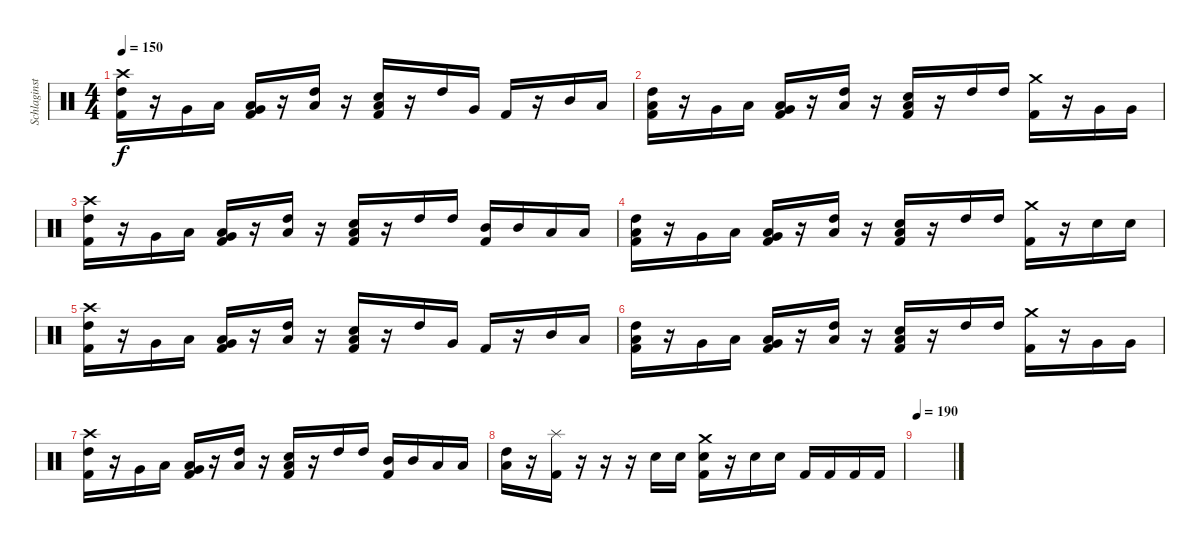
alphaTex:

\track ("Schlaginstrumente - Auswahl" "Schlaginst") {instrument percussion}
\staff {score}
\articulation defaults
\ts (4 4)
\tempo 150
\clef neutral
\ks c
("Crash high (hit)" "High Tom (hit)" "Kick (hit) 2").16{dy f} r.16 "Very Low Tom (hit)".16 "Low Tom (hit)".16 ("Low Tom (hit)" "Very Low Tom (hit)" "Kick (hit) 2").16 r.16 ("High Tom (hit)" "Low Floor Tom (hit)").16 r.16 ("Low Floor Tom (hit)" "Snare (hit) 2" "Kick (hit) 2").16 r.16 "High Tom (hit)".16 "Very Low Tom (hit)".16 "Kick (hit) 2".16 r.16 "Mid Tom (hit)".16 "Low Tom (hit)".16 |
("High Tom (hit)" "Low Tom (hit)" "Kick (hit) 2").16 r.16 "Very Low Tom (hit)".16 "Low Tom (hit)".16 ("Low Tom (hit)" "Very Low Tom (hit)" "Kick (hit) 2").16 r.16 ("High Tom (hit)" "Low Floor Tom (hit)").16 r.16 ("Low Floor Tom (hit)" "Snare (hit) 2" "Kick (hit) 2").16 r.16 "High Tom (hit)".16 "High Tom (hit)".16 ("Crash medium (hit)" "Kick (hit) 2").16 r.16 "Very Low Tom (hit)".16 "Very Low Tom (hit)".16 |
("Crash high (hit)" "High Tom (hit)" "Kick (hit) 2").16 r.16 "Very Low Tom (hit)".16 "Low Tom (hit)".16 ("Low Tom (hit)" "Very Low Tom (hit)" "Kick (hit) 2").16 r.16 ("High Tom (hit)" "Low Floor Tom (hit)").16 r.16 ("Low Floor Tom (hit)" "Snare (hit) 2" "Kick (hit) 2").16 r.16 "High Tom (hit)".16 "High Tom (hit)".16 ("Mid Tom (hit)" "Kick (hit) 2").16 "Mid Tom (hit)".16 "Low Tom (hit)".16 "Low Tom (hit)".16 |
("High Tom (hit)" "Low Tom (hit)" "Kick (hit) 2").16 r.16 "Very Low Tom (hit)".16 "Low Tom (hit)".16 ("Low Tom (hit)" "Very Low Tom (hit)" "Kick (hit) 2").16 r.16 ("High Tom (hit)" "Low Floor Tom (hit)").16 r.16 ("Low Floor Tom (hit)" "Snare (hit) 2" "Kick (hit) 2").16 r.16 "High Tom (hit)".16 "High Tom (hit)".16 ("Crash medium (hit)" "Kick (hit) 2").16 r.16 "Snare (hit) 2".16 "Snare (hit) 2".16 |
("Crash high (hit)" "High Tom (hit)" "Kick (hit) 2").16 r.16 "Very Low Tom (hit)".16 "Low Tom (hit)".16 ("Low Tom (hit)" "Very Low Tom (hit)" "Kick (hit) 2").16 r.16 ("High Tom (hit)" "Low Floor Tom (hit)").16 r.16 ("Low Floor Tom (hit)" "Snare (hit) 2" "Kick (hit) 2").16 r.16 "High Tom (hit)".16 "Very Low Tom (hit)".16 "Kick (hit) 2".16 r.16 "Mid Tom (hit)".16 "Low Tom (hit)".16 |
("High Tom (hit)" "Low Tom (hit)" "Kick (hit) 2").16 r.16 "Very Low Tom (hit)".16 "Low Tom (hit)".16 ("Low Tom (hit)" "Very Low Tom (hit)" "Kick (hit) 2").16 r.16 ("High Tom (hit)" "Low Floor Tom (hit)").16 r.16 ("Low Floor Tom (hit)" "Snare (hit) 2" "Kick (hit) 2").16 r.16 "High Tom (hit)".16 "High Tom (hit)".16 ("Crash medium (hit)" "Kick (hit) 2").16 r.16 "Very Low Tom (hit)".16 "Very Low Tom (hit)".16 |
("Crash high (hit)" "High Tom (hit)" "Kick (hit) 2").16 r.16 "Very Low Tom (hit)".16 "Low Tom (hit)".16 ("Low Tom (hit)" "Very Low Tom (hit)" "Kick (hit) 2").16 r.16 ("High Tom (hit)" "Low Floor Tom (hit)").16 r.16 ("Low Floor Tom (hit)" "Snare (hit) 2" "Kick (hit) 2").16 r.16 "High Tom (hit)".16 "High Tom (hit)".16 ("Mid Tom (hit)" "Kick (hit) 2").16 "Mid Tom (hit)".16 "Low Tom (hit)".16 "Low Tom (hit)".16 |
("High Tom (hit)" "Low Tom (hit)").16 r.16 ("Splash (hit)" "Kick (hit) 2").16 r.16 r.16 r.16 "Snare (hit) 2".16 "Snare (hit) 2".16 ("Crash medium (hit)" "Snare (hit) 2" "Kick (hit) 2").16 r.16 "Snare (hit) 2".16 "Snare (hit) 2".16 "Kick (hit) 2".16 "Kick (hit) 2".16 "Kick (hit) 2".16 "Kick (hit) 2".16 |
\tempo 190
